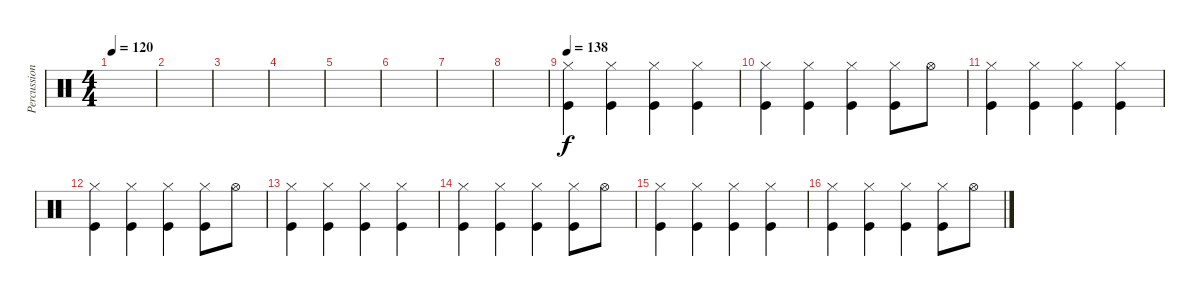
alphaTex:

\track ("Percussions" "Percussion") {instrument percussion}
\staff {score}
\articulation defaults
\ts (4 4)
\tempo 120
\tempo 138
\tempo 120
\clef neutral
\ks c
|
|
|
|
|
|
|
|
\tempo 138
("Hi-Hat (closed)" "Kick (hit)").4 ("Hi-Hat (closed)" "Kick (hit)").4 ("Hi-Hat (closed)" "Kick (hit)").4 ("Hi-Hat (closed)" "Kick (hit)").4 |
("Hi-Hat (closed)" "Kick (hit)").4 ("Hi-Hat (closed)" "Kick (hit)").4 ("Hi-Hat (closed)" "Kick (hit)").4 ("Hi-Hat (closed)" "Kick (hit)").8 "Hi-Hat (open)".8 |
("Hi-Hat (closed)" "Kick (hit)").4 ("Hi-Hat (closed)" "Kick (hit)").4 ("Hi-Hat (closed)" "Kick (hit)").4 ("Hi-Hat (closed)" "Kick (hit)").4 |
("Hi-Hat (closed)" "Kick (hit)").4 ("Hi-Hat (closed)" "Kick (hit)").4 ("Hi-Hat (closed)" "Kick (hit)").4 ("Hi-Hat (closed)" "Kick (hit)").8 "Hi-Hat (open)".8 |
("Hi-Hat (closed)" "Kick (hit)").4 ("Hi-Hat (closed)" "Kick (hit)").4 ("Hi-Hat (closed)" "Kick (hit)").4 ("Hi-Hat (closed)" "Kick (hit)").4 |
("Hi-Hat (closed)" "Kick (hit)").4 ("Hi-Hat (closed)" "Kick (hit)").4 ("Hi-Hat (closed)" "Kick (hit)").4 ("Hi-Hat (closed)" "Kick (hit)").8 "Hi-Hat (open)".8 |
("Hi-Hat (closed)" "Kick (hit)").4 ("Hi-Hat (closed)" "Kick (hit)").4 ("Hi-Hat (closed)" "Kick (hit)").4 ("Hi-Hat (closed)" "Kick (hit)").4 |
("Hi-Hat (closed)" "Kick (hit)").4 ("Hi-Hat (closed)" "Kick (hit)").4 ("Hi-Hat (closed)" "Kick (hit)").4 ("Hi-Hat (closed)" "Kick (hit)").8 "Hi-Hat (open)".8
